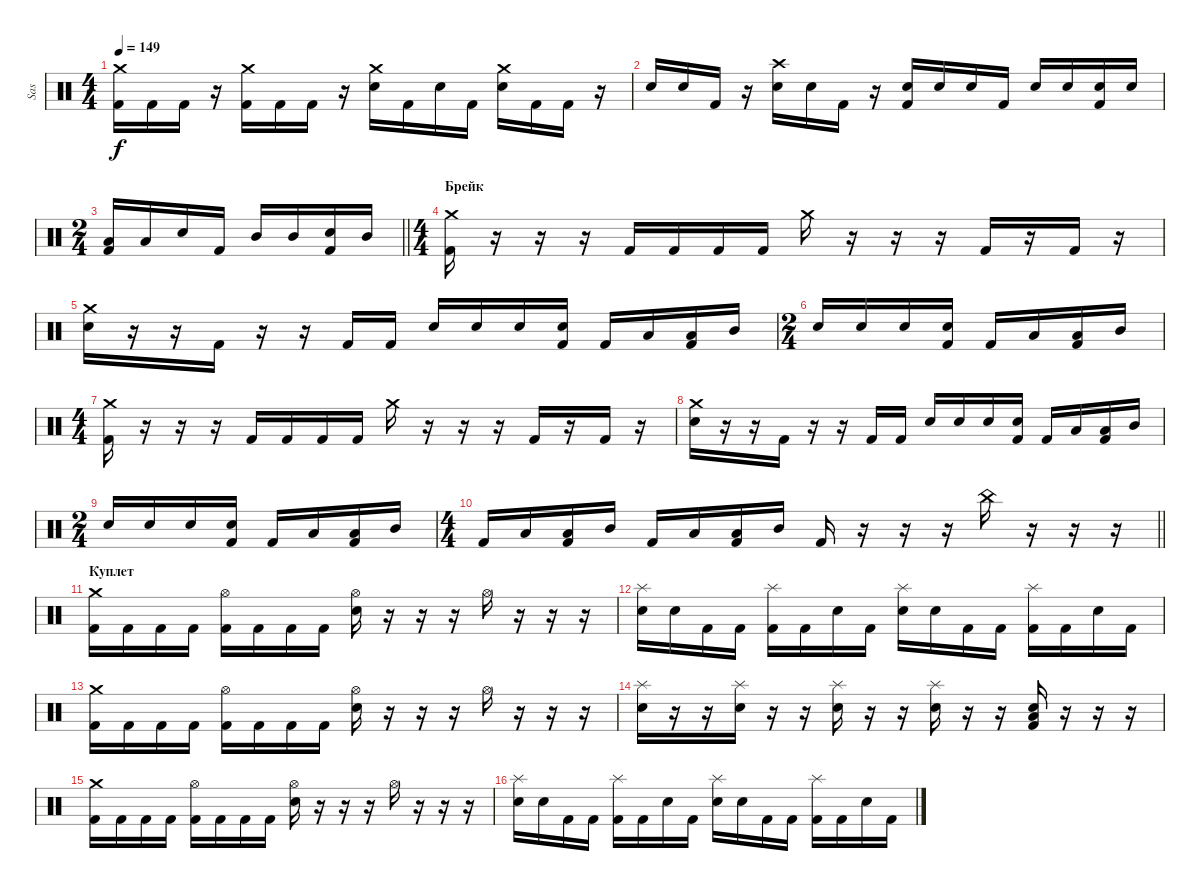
\track ("Sas" "Sas") {instrument percussion}
\staff {score}
\articulation defaults
\ts (4 4)
\tempo 149
\clef neutral
\ks c
("Crash medium (hit)" "Kick (hit) 2").16{dy f} "Kick (hit) 2".16 "Kick (hit) 2".16 r.16 ("Crash medium (hit)" "Kick (hit) 2").16 "Kick (hit) 2".16 "Kick (hit) 2".16 r.16 ("Crash medium (hit)" "Snare (hit) 2").16 "Kick (hit) 2".16 "Snare (hit) 2".16 "Kick (hit) 2".16 ("Crash medium (hit)" "Snare (hit) 2").16 "Kick (hit) 2".16 "Kick (hit) 2".16 r.16 |
"Snare (hit) 2".16 "Snare (hit) 2".16 "Kick (hit) 2".16 r.16 ("Crash high (hit)" "Snare (hit) 2").16 "Snare (hit) 2".16 "Kick (hit) 2".16 r.16 ("Snare (hit) 2" "Kick (hit) 2").16 "Snare (hit) 2".16 "Snare (hit) 2".16 "Kick (hit) 2".16 "Snare (hit) 2".16 "Snare (hit) 2".16 ("Snare (hit) 2" "Kick (hit) 2").16 "Snare (hit) 2".16 |
\ts (2 4)
\barLineRight lightlight
("Low Tom (hit)" "Kick (hit) 2").16 "Low Tom (hit)".16 "Snare (hit) 2".16 "Kick (hit) 2".16 "Mid Tom (hit)".16 "Mid Tom (hit)".16 ("Snare (hit) 2" "Kick (hit) 2").16 "Mid Tom (hit)".16 |
\ts (4 4)
\section ("" "Брейк")
("Crash medium (hit)" "Kick (hit) 2").16 r.16 r.16 r.16 "Kick (hit) 2".16 "Kick (hit) 2".16 "Kick (hit) 2".16 "Kick (hit) 2".16 "Crash medium (hit)".16 r.16 r.16 r.16 "Kick (hit) 2".16 r.16 "Kick (hit) 2".16 r.16 |
("Crash medium (hit)" "Snare (hit) 2").16 r.16 r.16 "Kick (hit) 2".16 r.16 r.16 "Kick (hit) 2".16 "Kick (hit) 2".16 "Snare (hit) 2".16 "Snare (hit) 2".16 "Snare (hit) 2".16 ("Snare (hit) 2" "Kick (hit) 2").16 "Kick (hit) 2".16 "Low Tom (hit)".16 ("Low Tom (hit)" "Kick (hit) 2").16 "Mid Tom (hit)".16 |
\ts (2 4)
"Snare (hit) 2".16 "Snare (hit) 2".16 "Snare (hit) 2".16 ("Snare (hit) 2" "Kick (hit) 2").16 "Kick (hit) 2".16 "Low Tom (hit)".16 ("Low Tom (hit)" "Kick (hit) 2").16 "Mid Tom (hit)".16 |
\ts (4 4)
("Crash medium (hit)" "Kick (hit) 2").16 r.16 r.16 r.16 "Kick (hit) 2".16 "Kick (hit) 2".16 "Kick (hit) 2".16 "Kick (hit) 2".16 "Crash medium (hit)".16 r.16 r.16 r.16 "Kick (hit) 2".16 r.16 "Kick (hit) 2".16 r.16 |
("Crash medium (hit)" "Snare (hit) 2").16 r.16 r.16 "Kick (hit) 2".16 r.16 r.16 "Kick (hit) 2".16 "Kick (hit) 2".16 "Snare (hit) 2".16 "Snare (hit) 2".16 "Snare (hit) 2".16 ("Snare (hit) 2" "Kick (hit) 2").16 "Kick (hit) 2".16 "Low Tom (hit)".16 ("Low Tom (hit)" "Kick (hit) 2").16 "Mid Tom (hit)".16 |
\ts (2 4)
"Snare (hit) 2".16 "Snare (hit) 2".16 "Snare (hit) 2".16 ("Snare (hit) 2" "Kick (hit) 2").16 "Kick (hit) 2".16 "Low Tom (hit)".16 ("Low Tom (hit)" "Kick (hit) 2").16 "Mid Tom (hit)".16 |
\ts (4 4)
\barLineRight lightlight "Kick (hit) 2".16 "Low Tom (hit)".16
("Low Tom (hit)" "Kick (hit) 2").16 "Mid Tom (hit)".16 "Kick (hit) 2".16 "Low Tom (hit)".16 ("Low Tom (hit)" "Kick (hit) 2").16 "Mid Tom (hit)".16 "Kick (hit) 2".16 r.16 r.16 r.16 "China (hit)".16 r.16 r.16 r.16 |
\section ("" "Куплет")
("Crash medium (hit)" "Kick (hit) 2").16 "Kick (hit) 2".16 "Kick (hit) 2".16 "Kick (hit) 2".16 ("Hi-Hat (open)" "Kick (hit) 2").16 "Kick (hit) 2".16 "Kick (hit) 2".16 "Kick (hit) 2".16 ("Hi-Hat (open)" "Snare (hit) 2").16 r.16 r.16 r.16 "Hi-Hat (open)".16 r.16 r.16 r.16 |
("Splash (hit)" "Snare (hit) 2").16 "Snare (hit) 2".16 "Kick (hit) 2".16 "Kick (hit) 2".16 ("Splash (hit)" "Kick (hit) 2").16 "Kick (hit) 2".16 "Snare (hit) 2".16 "Kick (hit) 2".16 ("Splash (hit)" "Snare (hit) 2").16 "Snare (hit) 2".16 "Kick (hit) 2".16 "Kick (hit) 2".16 ("Splash (hit)" "Kick (hit) 2").16 "Kick (hit) 2".16 "Snare (hit) 2".16 "Kick (hit) 2".16 |
("Crash medium (hit)" "Kick (hit) 2").16 "Kick (hit) 2".16 "Kick (hit) 2".16 "Kick (hit) 2".16 ("Hi-Hat (open)" "Kick (hit) 2").16 "Kick (hit) 2".16 "Kick (hit) 2".16 "Kick (hit) 2".16 ("Hi-Hat (open)" "Snare (hit) 2").16 r.16 r.16 r.16 "Hi-Hat (open)".16 r.16 r.16 r.16 |
("Splash (hit)" "Snare (hit) 2").16 r.16 r.16 ("Splash (hit)" "Snare (hit) 2").16 r.16 r.16 ("Splash (hit)" "Snare (hit) 2").16 r.16 r.16 ("Splash (hit)" "Snare (hit) 2").16 r.16 r.16 ("Low Tom (hit)" "Snare (hit) 2" "Kick (hit) 2").16 r.16 r.16 r.16 |
("Crash medium (hit)" "Kick (hit) 2").16 "Kick (hit) 2".16 "Kick (hit) 2".16 "Kick (hit) 2".16 ("Hi-Hat (open)" "Kick (hit) 2").16 "Kick (hit) 2".16 "Kick (hit) 2".16 "Kick (hit) 2".16 ("Hi-Hat (open)" "Snare (hit) 2").16 r.16 r.16 r.16 "Hi-Hat (open)".16 r.16 r.16 r.16 |
("Splash (hit)" "Snare (hit) 2").16 "Snare (hit) 2".16 "Kick (hit) 2".16 "Kick (hit) 2".16 ("Splash (hit)" "Kick (hit) 2").16 "Kick (hit) 2".16 "Snare (hit) 2".16 "Kick (hit) 2".16 ("Splash (hit)" "Snare (hit) 2").16 "Snare (hit) 2".16 "Kick (hit) 2".16 "Kick (hit) 2".16 ("Splash (hit)" "Kick (hit) 2").16 "Kick (hit) 2".16 "Snare (hit) 2".16 "Kick (hit) 2".16
